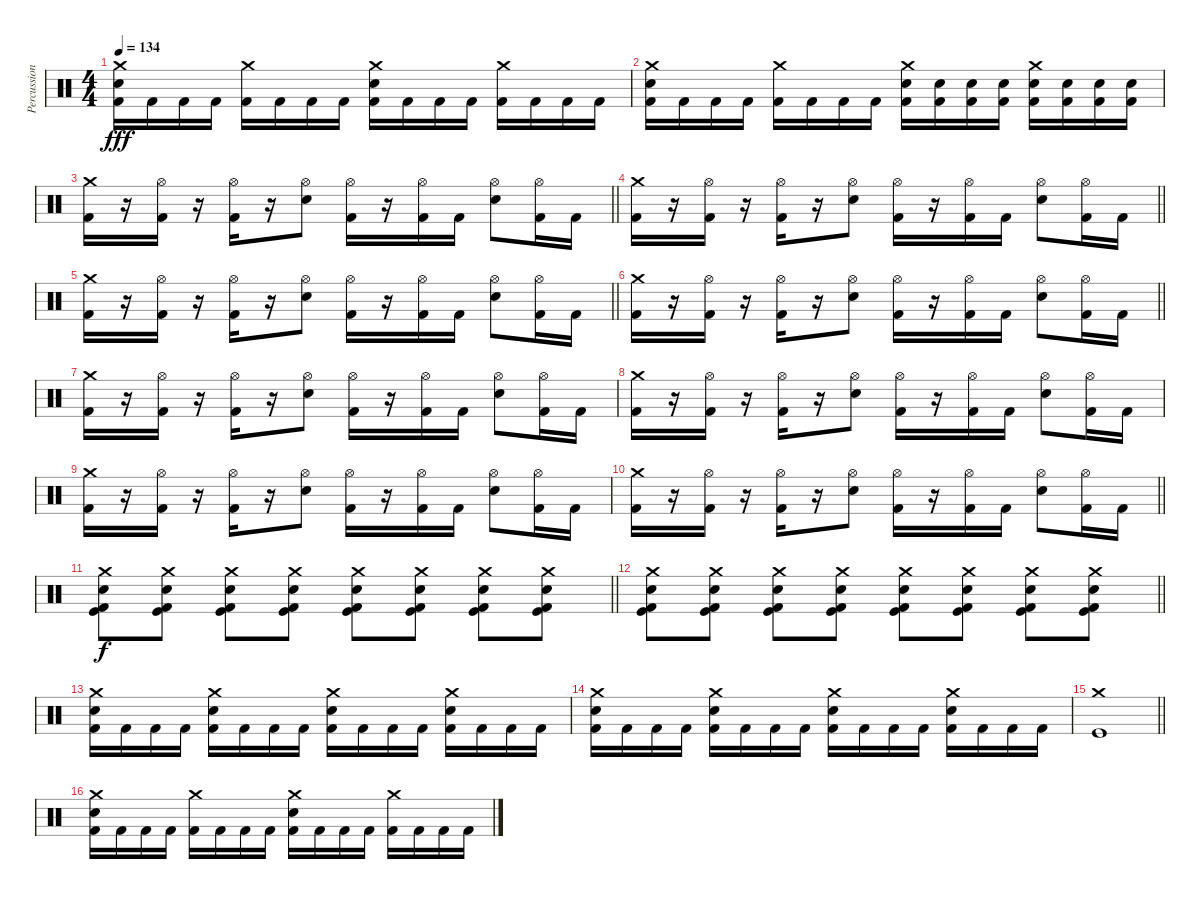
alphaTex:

\track ("Percussion" "Percussion") {instrument percussion}
\staff {score}
\articulation defaults
\ts (4 4)
\tempo 134
\clef neutral
\ks c
("Crash medium (hit)" "Snare (hit) 2" "Kick (hit) 2").16{dy fff} "Kick (hit) 2".16 "Kick (hit) 2".16 "Kick (hit) 2".16 ("Crash medium (hit)" "Kick (hit) 2").16 "Kick (hit) 2".16 "Kick (hit) 2".16 "Kick (hit) 2".16 ("Crash medium (hit)" "Snare (hit) 2" "Kick (hit) 2").16 "Kick (hit) 2".16 "Kick (hit) 2".16 "Kick (hit) 2".16 ("Crash medium (hit)" "Kick (hit) 2").16 "Kick (hit) 2".16 "Kick (hit) 2".16 "Kick (hit) 2".16 |
("Crash medium (hit)" "Snare (hit) 2" "Kick (hit) 2").16 "Kick (hit) 2".16 "Kick (hit) 2".16 "Kick (hit) 2".16 ("Crash medium (hit)" "Kick (hit) 2").16 "Kick (hit) 2".16 "Kick (hit) 2".16 "Kick (hit) 2".16 ("Crash medium (hit)" "Snare (hit) 2" "Kick (hit) 2").16 ("Snare (hit) 2" "Kick (hit) 2").16 ("Snare (hit) 2" "Kick (hit) 2").16 ("Snare (hit) 2" "Kick (hit) 2").16 ("Crash medium (hit)" "Snare (hit) 2" "Kick (hit) 2").16 ("Snare (hit) 2" "Kick (hit) 2").16 ("Snare (hit) 2" "Kick (hit) 2").16 ("Snare (hit) 2" "Kick (hit) 2").16 |
\barLineRight lightlight
("Crash medium (hit)" "Kick (hit) 2").16 r.16 ("Hi-Hat (open)" "Kick (hit) 2").16 r.16 ("Hi-Hat (open)" "Kick (hit) 2").16 r.16 ("Hi-Hat (open)" "Snare (hit) 2").8 ("Hi-Hat (open)" "Kick (hit) 2").16 r.16 ("Hi-Hat (open)" "Kick (hit) 2").16 "Kick (hit) 2".16 ("Hi-Hat (open)" "Snare (hit) 2").8 ("Hi-Hat (open)" "Kick (hit) 2").16 "Kick (hit) 2".16 |
\barLineRight lightlight
("Crash medium (hit)" "Kick (hit) 2").16 r.16 ("Hi-Hat (open)" "Kick (hit) 2").16 r.16 ("Hi-Hat (open)" "Kick (hit) 2").16 r.16 ("Hi-Hat (open)" "Snare (hit) 2").8 ("Hi-Hat (open)" "Kick (hit) 2").16 r.16 ("Hi-Hat (open)" "Kick (hit) 2").16 "Kick (hit) 2".16 ("Hi-Hat (open)" "Snare (hit) 2").8 ("Hi-Hat (open)" "Kick (hit) 2").16 "Kick (hit) 2".16 |
\barLineRight lightlight
("Crash medium (hit)" "Kick (hit) 2").16 r.16 ("Hi-Hat (open)" "Kick (hit) 2").16 r.16 ("Hi-Hat (open)" "Kick (hit) 2").16 r.16 ("Hi-Hat (open)" "Snare (hit) 2").8 ("Hi-Hat (open)" "Kick (hit) 2").16 r.16 ("Hi-Hat (open)" "Kick (hit) 2").16 "Kick (hit) 2".16 ("Hi-Hat (open)" "Snare (hit) 2").8 ("Hi-Hat (open)" "Kick (hit) 2").16 "Kick (hit) 2".16 |
\barLineRight lightlight
("Crash medium (hit)" "Kick (hit) 2").16 r.16 ("Hi-Hat (open)" "Kick (hit) 2").16 r.16 ("Hi-Hat (open)" "Kick (hit) 2").16 r.16 ("Hi-Hat (open)" "Snare (hit) 2").8 ("Hi-Hat (open)" "Kick (hit) 2").16 r.16 ("Hi-Hat (open)" "Kick (hit) 2").16 "Kick (hit) 2".16 ("Hi-Hat (open)" "Snare (hit) 2").8 ("Hi-Hat (open)" "Kick (hit) 2").16 "Kick (hit) 2".16 |
("Crash medium (hit)" "Kick (hit) 2").16 r.16 ("Hi-Hat (open)" "Kick (hit) 2").16 r.16 ("Hi-Hat (open)" "Kick (hit) 2").16 r.16 ("Hi-Hat (open)" "Snare (hit) 2").8 ("Hi-Hat (open)" "Kick (hit) 2").16 r.16 ("Hi-Hat (open)" "Kick (hit) 2").16 "Kick (hit) 2".16 ("Hi-Hat (open)" "Snare (hit) 2").8 ("Hi-Hat (open)" "Kick (hit) 2").16 "Kick (hit) 2".16 |
("Crash medium (hit)" "Kick (hit) 2").16 r.16 ("Hi-Hat (open)" "Kick (hit) 2").16 r.16 ("Hi-Hat (open)" "Kick (hit) 2").16 r.16 ("Hi-Hat (open)" "Snare (hit) 2").8 ("Hi-Hat (open)" "Kick (hit) 2").16 r.16 ("Hi-Hat (open)" "Kick (hit) 2").16 "Kick (hit) 2".16 ("Hi-Hat (open)" "Snare (hit) 2").8 ("Hi-Hat (open)" "Kick (hit) 2").16 "Kick (hit) 2".16 |
("Crash medium (hit)" "Kick (hit) 2").16 r.16 ("Hi-Hat (open)" "Kick (hit) 2").16 r.16 ("Hi-Hat (open)" "Kick (hit) 2").16 r.16 ("Hi-Hat (open)" "Snare (hit) 2").8 ("Hi-Hat (open)" "Kick (hit) 2").16 r.16 ("Hi-Hat (open)" "Kick (hit) 2").16 "Kick (hit) 2".16 ("Hi-Hat (open)" "Snare (hit) 2").8 ("Hi-Hat (open)" "Kick (hit) 2").16 "Kick (hit) 2".16 |
\barLineRight lightlight
("Crash medium (hit)" "Kick (hit) 2").16 r.16 ("Hi-Hat (open)" "Kick (hit) 2").16 r.16 ("Hi-Hat (open)" "Kick (hit) 2").16 r.16 ("Hi-Hat (open)" "Snare (hit) 2").8 ("Hi-Hat (open)" "Kick (hit) 2").16 r.16 ("Hi-Hat (open)" "Kick (hit) 2").16 "Kick (hit) 2".16 ("Hi-Hat (open)" "Snare (hit) 2").8 ("Hi-Hat (open)" "Kick (hit) 2").16 "Kick (hit) 2".16 |
\section ("" "")
\barLineRight lightlight
("Crash medium (hit)" "Snare (hit) 2" "Kick (hit) 2" "Kick (hit)").8{dy f} ("Crash medium (hit)" "Snare (hit) 2" "Kick (hit) 2" "Kick (hit)").8 ("Crash medium (hit)" "Snare (hit) 2" "Kick (hit) 2" "Kick (hit)").8 ("Crash medium (hit)" "Snare (hit) 2" "Kick (hit) 2" "Kick (hit)").8 ("Crash medium (hit)" "Snare (hit) 2" "Kick (hit) 2" "Kick (hit)").8 ("Crash medium (hit)" "Snare (hit) 2" "Kick (hit) 2" "Kick (hit)").8 ("Crash medium (hit)" "Snare (hit) 2" "Kick (hit) 2" "Kick (hit)").8 ("Crash medium (hit)" "Snare (hit) 2" "Kick (hit) 2" "Kick (hit)").8 |
\barLineRight lightlight
("Crash medium (hit)" "Snare (hit) 2" "Kick (hit) 2" "Kick (hit)").8 ("Crash medium (hit)" "Snare (hit) 2" "Kick (hit) 2" "Kick (hit)").8 ("Crash medium (hit)" "Snare (hit) 2" "Kick (hit) 2" "Kick (hit)").8 ("Crash medium (hit)" "Snare (hit) 2" "Kick (hit) 2" "Kick (hit)").8 ("Crash medium (hit)" "Snare (hit) 2" "Kick (hit) 2" "Kick (hit)").8 ("Crash medium (hit)" "Snare (hit) 2" "Kick (hit) 2" "Kick (hit)").8 ("Crash medium (hit)" "Snare (hit) 2" "Kick (hit) 2" "Kick (hit)").8 ("Crash medium (hit)" "Snare (hit) 2" "Kick (hit) 2" "Kick (hit)").8 |
("Crash medium (hit)" "Snare (hit) 2" "Kick (hit) 2").16 "Kick (hit) 2".16 "Kick (hit) 2".16 "Kick (hit) 2".16 ("Crash medium (hit)" "Snare (hit) 2" "Kick (hit) 2").16 "Kick (hit) 2".16 "Kick (hit) 2".16 "Kick (hit) 2".16 ("Crash medium (hit)" "Snare (hit) 2" "Kick (hit) 2").16 "Kick (hit) 2".16 "Kick (hit) 2".16 "Kick (hit) 2".16 ("Crash medium (hit)" "Snare (hit) 2" "Kick (hit) 2").16 "Kick (hit) 2".16 "Kick (hit) 2".16 "Kick (hit) 2".16 |
("Crash medium (hit)" "Snare (hit) 2" "Kick (hit) 2").16 "Kick (hit) 2".16 "Kick (hit) 2".16 "Kick (hit) 2".16 ("Crash medium (hit)" "Snare (hit) 2" "Kick (hit) 2").16 "Kick (hit) 2".16 "Kick (hit) 2".16 "Kick (hit) 2".16 ("Crash medium (hit)" "Snare (hit) 2" "Kick (hit) 2").16 "Kick (hit) 2".16 "Kick (hit) 2".16 "Kick (hit) 2".16 ("Crash medium (hit)" "Snare (hit) 2" "Kick (hit) 2").16 "Kick (hit) 2".16 "Kick (hit) 2".16 "Kick (hit) 2".16 |
\barLineRight lightlight
("Crash medium (hit)" "Kick (hit)").1 |
\section ("" "")
("Crash medium (hit)" "Snare (hit) 2" "Kick (hit) 2").16 "Kick (hit) 2".16 "Kick (hit) 2".16 "Kick (hit) 2".16 ("Crash medium (hit)" "Kick (hit) 2").16 "Kick (hit) 2".16 "Kick (hit) 2".16 "Kick (hit) 2".16 ("Crash medium (hit)" "Snare (hit) 2" "Kick (hit) 2").16 "Kick (hit) 2".16 "Kick (hit) 2".16 "Kick (hit) 2".16 ("Crash medium (hit)" "Kick (hit) 2").16 "Kick (hit) 2".16 "Kick (hit) 2".16 "Kick (hit) 2".16
